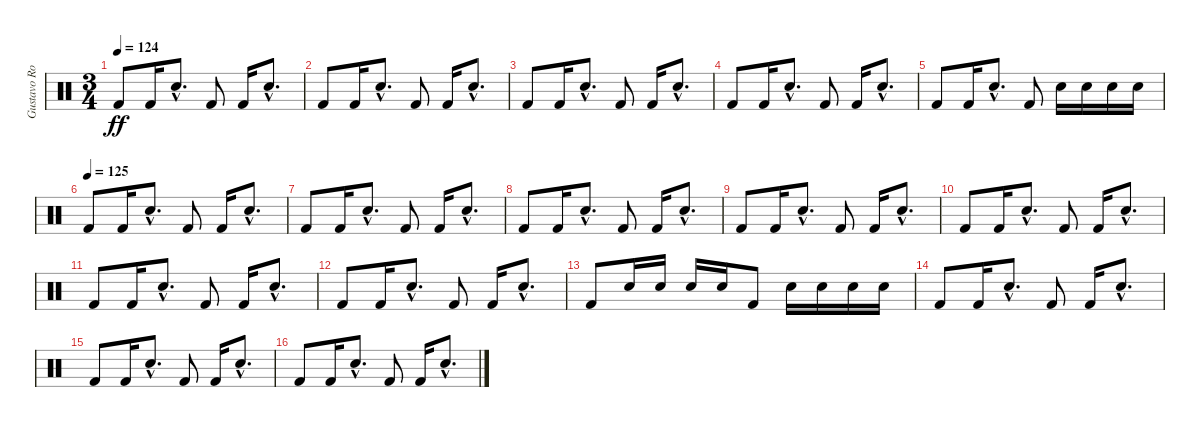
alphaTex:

\track ("Gustavo Rowek 2" "Gustavo Ro") {instrument percussion}
\staff {score}
\articulation defaults
\ts (3 4)
\tempo 124
\clef neutral
\ks c "Kick (hit) 2".8{dy ff} "Kick (hit) 2".16 "Snare (hit) 2"{hac}.8{d} "Kick (hit) 2".8 "Kick (hit) 2".16 "Snare (hit) 2"{hac}.8{d}
|
"Kick (hit) 2".8 "Kick (hit) 2".16 "Snare (hit) 2"{hac}.8{d} "Kick (hit) 2".8 "Kick (hit) 2".16 "Snare (hit) 2"{hac}.8{d} |
"Kick (hit) 2".8 "Kick (hit) 2".16 "Snare (hit) 2"{hac}.8{d} "Kick (hit) 2".8 "Kick (hit) 2".16 "Snare (hit) 2"{hac}.8{d} |
"Kick (hit) 2".8 "Kick (hit) 2".16 "Snare (hit) 2"{hac}.8{d} "Kick (hit) 2".8 "Kick (hit) 2".16 "Snare (hit) 2"{hac}.8{d} |
"Kick (hit) 2".8 "Kick (hit) 2".16 "Snare (hit) 2"{hac}.8{d} "Kick (hit) 2".8 "Electric Snare (hit)".16 "Electric Snare (hit)".16 "Electric Snare (hit)".16 "Electric Snare (hit)".16 |
\tempo (125)
"Kick (hit) 2".8 "Kick (hit) 2".16 "Snare (hit) 2"{hac}.8{d} "Kick (hit) 2".8 "Kick (hit) 2".16 "Snare (hit) 2"{hac}.8{d} |
"Kick (hit) 2".8 "Kick (hit) 2".16 "Snare (hit) 2"{hac}.8{d} "Kick (hit) 2".8 "Kick (hit) 2".16 "Snare (hit) 2"{hac}.8{d} |
"Kick (hit) 2".8 "Kick (hit) 2".16 "Snare (hit) 2"{hac}.8{d} "Kick (hit) 2".8 "Kick (hit) 2".16 "Snare (hit) 2"{hac}.8{d} |
"Kick (hit) 2".8 "Kick (hit) 2".16 "Snare (hit) 2"{hac}.8{d} "Kick (hit) 2".8 "Kick (hit) 2".16 "Snare (hit) 2"{hac}.8{d} |
"Kick (hit) 2".8 "Kick (hit) 2".16 "Snare (hit) 2"{hac}.8{d} "Kick (hit) 2".8 "Kick (hit) 2".16 "Snare (hit) 2"{hac}.8{d} |
"Kick (hit) 2".8 "Kick (hit) 2".16 "Snare (hit) 2"{hac}.8{d} "Kick (hit) 2".8 "Kick (hit) 2".16 "Snare (hit) 2"{hac}.8{d} |
"Kick (hit) 2".8 "Kick (hit) 2".16 "Snare (hit) 2"{hac}.8{d} "Kick (hit) 2".8 "Kick (hit) 2".16 "Snare (hit) 2"{hac}.8{d} |
"Kick (hit) 2".8 "Electric Snare (hit)".16 "Electric Snare (hit)".16 "Electric Snare (hit)".16 "Electric Snare (hit)".16 "Kick (hit) 2".8 "Electric Snare (hit)".16 "Electric Snare (hit)".16 "Electric Snare (hit)".16 "Electric Snare (hit)".16 |
"Kick (hit) 2".8 "Kick (hit) 2".16 "Snare (hit) 2"{hac}.8{d} "Kick (hit) 2".8 "Kick (hit) 2".16 "Snare (hit) 2"{hac}.8{d} |
"Kick (hit) 2".8 "Kick (hit) 2".16 "Snare (hit) 2"{hac}.8{d} "Kick (hit) 2".8 "Kick (hit) 2".16 "Snare (hit) 2"{hac}.8{d} |
"Kick (hit) 2".8 "Kick (hit) 2".16 "Snare (hit) 2"{hac}.8{d} "Kick (hit) 2".8 "Kick (hit) 2".16 "Snare (hit) 2"{hac}.8{d}
